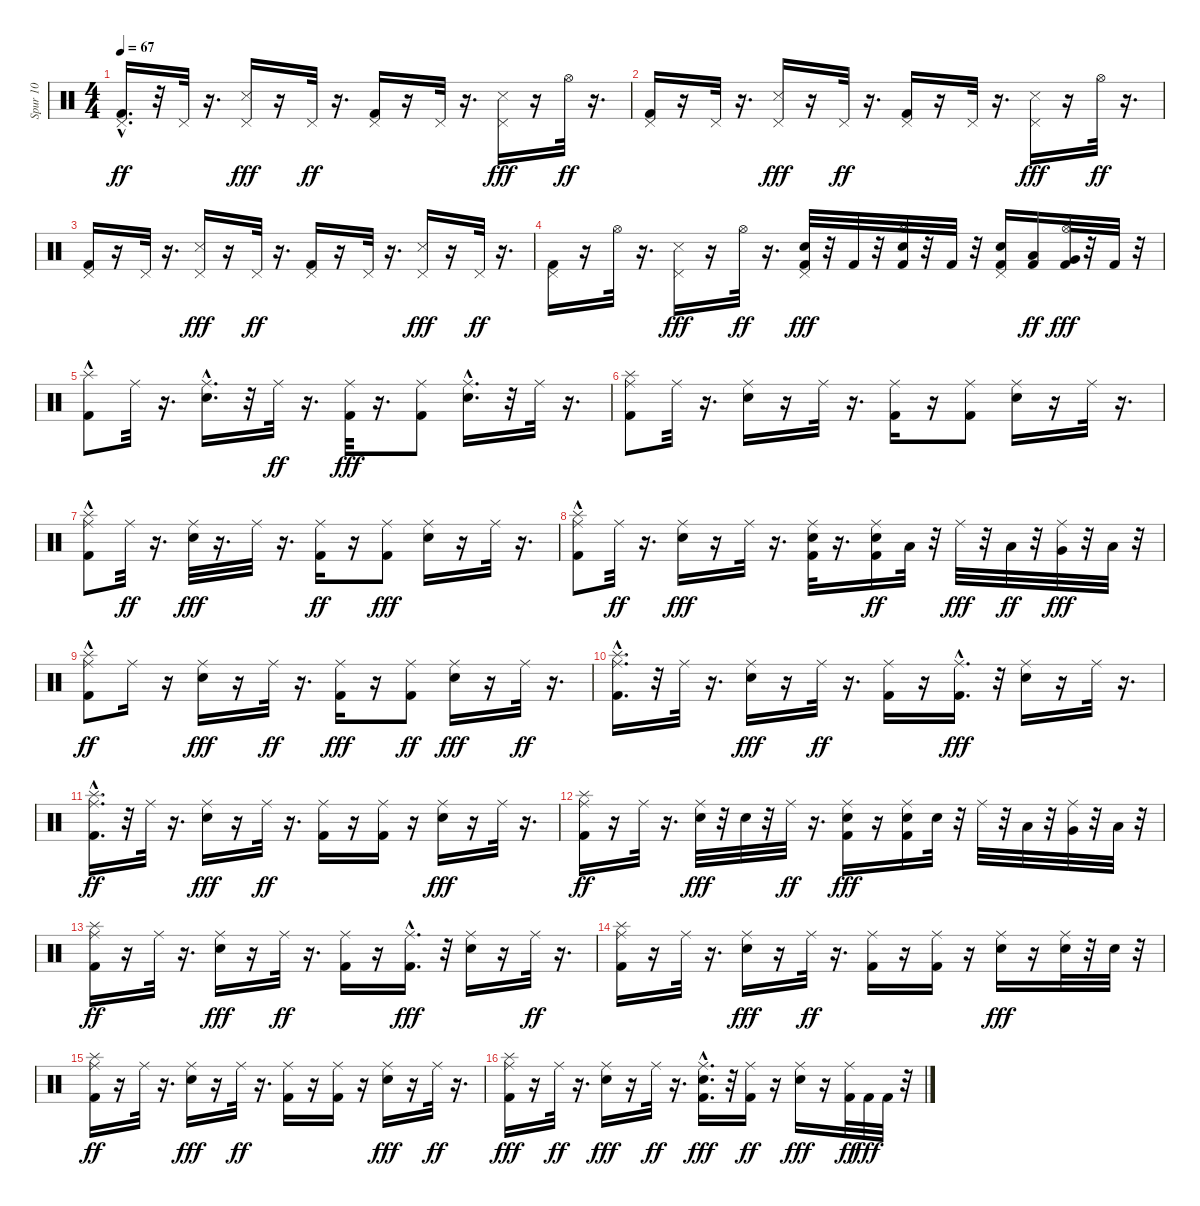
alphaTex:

\track ("Spur 10" "Spur 10") {instrument percussion}
\staff {score}
\articulation defaults
\ts (4 4)
\tempo 67
\clef neutral
\ks c
("Kick (hit) 2"{hac} "Pedal Hi-Hat (hit)").16{d dy ff} r.32 "Pedal Hi-Hat (hit)".32 r.16{d} ("Pedal Hi-Hat (hit)" "Snare (side stick) 3").16{dy fff} r.16 "Pedal Hi-Hat (hit)".32{dy ff} r.16{d} ("Kick (hit) 2" "Pedal Hi-Hat (hit)").16 r.16 "Pedal Hi-Hat (hit)".32 r.16{d} ("Pedal Hi-Hat (hit)" "Snare (side stick) 3").16{dy fff} r.16 "Hi-Hat (open)".32{dy ff} r.16{d} |
("Kick (hit) 2" "Pedal Hi-Hat (hit)").16 r.16 "Pedal Hi-Hat (hit)".32 r.16{d} ("Pedal Hi-Hat (hit)" "Snare (side stick) 3").16{dy fff} r.16 "Pedal Hi-Hat (hit)".32{dy ff} r.16{d} ("Kick (hit) 2" "Pedal Hi-Hat (hit)").16 r.16 "Pedal Hi-Hat (hit)".32 r.16{d} ("Pedal Hi-Hat (hit)" "Snare (side stick) 3").16{dy fff} r.16 "Hi-Hat (open)".32{dy ff} r.16{d} |
("Kick (hit) 2" "Pedal Hi-Hat (hit)").16 r.16 "Pedal Hi-Hat (hit)".32 r.16{d} ("Pedal Hi-Hat (hit)" "Snare (side stick) 3").16{dy fff} r.16 "Pedal Hi-Hat (hit)".32{dy ff} r.16{d} ("Kick (hit) 2" "Pedal Hi-Hat (hit)").16 r.16 "Pedal Hi-Hat (hit)".32 r.16{d} ("Pedal Hi-Hat (hit)" "Snare (side stick) 3").16{dy fff} r.16 "Pedal Hi-Hat (hit)".32{dy ff} r.16{d} |
("Kick (hit) 2" "Pedal Hi-Hat (hit)").16 r.16 "Hi-Hat (open)".32 r.16{d} ("Pedal Hi-Hat (hit)" "Snare (side stick) 3").16{dy fff} r.16 "Hi-Hat (open)".32{dy ff} r.16{d} ("Kick (hit) 2" "Pedal Hi-Hat (hit)" "Snare (hit) 2").32{dy fff} r.32 "Kick (hit) 2".32 r.32 ("Kick (hit) 2" "Hi-Hat (open)" "Snare (hit) 2").32 r.32 "Kick (hit) 2".32 r.32 ("Kick (hit) 2" "Pedal Hi-Hat (hit)" "Snare (hit) 2").16 ("Kick (hit) 2" "Low Tom (hit)").16{dy ff} ("Kick (hit) 2" "Hi-Hat (open)" "Very Low Tom (hit)").32{dy fff} r.32 "Kick (hit) 2".32 r.32 |
("Kick (hit) 2"{hac} "Splash (hit)"{hac}).8 "Ride (middle)".32 r.16{d} ("Ride (middle)" "Snare (hit) 2"{hac}).16{d} r.32 "Ride (middle)".32{dy ff} r.16{d} ("Kick (hit) 2" "Ride (middle)").32{dy fff} r.16{d} ("Kick (hit) 2" "Ride (middle)").8 ("Ride (middle)" "Snare (hit) 2"{hac}).16{d} r.32 "Ride (middle)".32 r.16{d} |
("Kick (hit) 2" "Ride (middle)" "Splash (hit)").8 "Ride (middle)".32 r.16{d} ("Ride (middle)" "Snare (hit) 2").16 r.16 "Ride (middle)".32 r.16{d} ("Kick (hit) 2" "Ride (middle)").16 r.16 ("Kick (hit) 2" "Ride (middle)").8 ("Ride (middle)" "Snare (hit) 2").16 r.16 "Ride (middle)".32 r.16{d} |
("Kick (hit) 2" "Ride (middle)" "Splash (hit)"{hac}).8 "Ride (middle)".32{dy ff} r.16{d} ("Ride (middle)" "Snare (hit) 2").32{dy fff} r.16{d} "Ride (middle)".32 r.16{d} ("Kick (hit) 2" "Ride (middle)").16{dy ff} r.16 ("Kick (hit) 2" "Ride (middle)").8{dy fff} ("Ride (middle)" "Snare (hit) 2").16 r.16 "Ride (middle)".32 r.16{d} |
("Kick (hit) 2" "Ride (middle)" "Splash (hit)"{hac}).8 "Ride (middle)".32{dy ff} r.16{d} ("Ride (middle)" "Snare (hit) 2").16{dy fff} r.16 "Ride (middle)".32 r.16{d} ("Kick (hit) 2" "Ride (middle)" "Snare (hit) 2").32 r.16{d} ("Kick (hit) 2" "Ride (middle)" "Snare (hit) 2").16{dy ff} "Low Tom (hit)".32 r.32 "Ride (middle)".32{dy fff} r.32 "Low Tom (hit)".32{dy ff} r.32 ("Ride (middle)" "Very Low Tom (hit)").32{dy fff} r.32 "Low Floor Tom (hit)".32 r.32 |
("Kick (hit) 2"{hac} "Splash (hit)" "Ride (middle)").8{dy ff} "Ride (middle)".16 r.16 ("Ride (middle)" "Snare (hit) 2").16{dy fff} r.16 "Ride (middle)".32{dy ff} r.16{d} ("Kick (hit) 2" "Ride (middle)").16{dy fff} r.16 ("Kick (hit) 2" "Ride (middle)").8{dy ff} ("Ride (middle)" "Snare (hit) 2").16{dy fff} r.16 "Ride (middle)".32{dy ff} r.16{d} |
("Kick (hit) 2"{hac} "Ride (middle)"{hac} "Splash (hit)"{hac}).16{d} r.32 "Ride (middle)".32 r.16{d} ("Ride (middle)" "Snare (hit) 2").16{dy fff} r.16 "Ride (middle)".32{dy ff} r.16{d} ("Kick (hit) 2" "Ride (middle)").16 r.16 ("Kick (hit) 2"{hac} "Ride (middle)").16{d dy fff} r.32 ("Ride (middle)" "Snare (hit) 2").16 r.16 "Ride (middle)".32 r.16{d} |
("Kick (hit) 2"{hac} "Splash (hit)" "Ride (middle)").16{d dy ff} r.32 "Ride (middle)".32 r.16{d} ("Ride (middle)" "Snare (hit) 2").16{dy fff} r.16 "Ride (middle)".32{dy ff} r.16{d} ("Kick (hit) 2" "Ride (middle)").16 r.16 ("Kick (hit) 2" "Ride (middle)").16 r.16 ("Ride (middle)" "Snare (hit) 2").16{dy fff} r.16 "Ride (middle)".32 r.16{d} |
("Kick (hit) 2" "Splash (hit)" "Ride (middle)").16{dy ff} r.16 "Ride (middle)".32 r.16{d} ("Ride (middle)" "Snare (hit) 2").32{dy fff} r.32 "Snare (hit) 2".32 r.32 "Ride (middle)".32{dy ff} r.16{d} ("Kick (hit) 2" "Ride (middle)" "Snare (hit) 2").16{dy fff} r.16 ("Kick (hit) 2" "Ride (middle)" "Snare (hit) 2").16 "Snare (hit) 2".32 r.32 "Ride (middle)".32 r.32 "Low Tom (hit)".32 r.32 ("Ride (middle)" "Very Low Tom (hit)").32 r.32 "Low Floor Tom (hit)".32 r.32 |
("Kick (hit) 2" "Splash (hit)" "Ride (middle)").16{dy ff} r.16 "Ride (middle)".32 r.16{d} ("Ride (middle)" "Snare (hit) 2").16{dy fff} r.16 "Ride (middle)".32{dy ff} r.16{d} ("Kick (hit) 2" "Ride (middle)").16 r.16 ("Kick (hit) 2"{hac} "Ride (middle)").16{d dy fff} r.32 ("Ride (middle)" "Snare (hit) 2").16 r.16 "Ride (middle)".32{dy ff} r.16{d} |
("Kick (hit) 2" "Ride (middle)" "Splash (hit)").16 r.16 "Ride (middle)".32 r.16{d} ("Ride (middle)" "Snare (hit) 2").16{dy fff} r.16 "Ride (middle)".32{dy ff} r.16{d} ("Kick (hit) 2" "Ride (middle)").16 r.16 ("Kick (hit) 2" "Ride (middle)").16 r.16 ("Ride (middle)" "Snare (hit) 2").16{dy fff} r.16 ("Ride (middle)" "Snare (hit) 2").32 r.32 "Snare (hit) 2".32 r.32 |
("Kick (hit) 2" "Splash (hit)" "Ride (middle)").16{dy ff} r.16 "Ride (middle)".32 r.16{d} ("Ride (middle)" "Snare (hit) 2").16{dy fff} r.16 "Ride (middle)".32{dy ff} r.16{d} ("Kick (hit) 2" "Ride (middle)").16 r.16 ("Kick (hit) 2" "Ride (middle)").16 r.16 ("Ride (middle)" "Snare (hit) 2").16{dy fff} r.16 "Ride (middle)".32{dy ff} r.16{d} |
("Kick (hit) 2" "Ride (middle)" "Splash (hit)").16{dy fff} r.16 "Ride (middle)".32{dy ff} r.16{d} ("Ride (middle)" "Snare (hit) 2").16{dy fff} r.16 "Ride (middle)".32{dy ff} r.16{d} ("Kick (hit) 2" "Ride (middle)" "Snare (hit) 2"{hac}).16{d dy fff} r.32 ("Kick (hit) 2" "Ride (middle)").16{dy ff} r.16 ("Ride (middle)" "Snare (hit) 2").16{dy fff} r.16 ("Kick (hit) 2" "Ride (middle)").32{dy ff} "Kick (hit) 2".32{dy fff} "Kick (hit) 2".32 r.32
